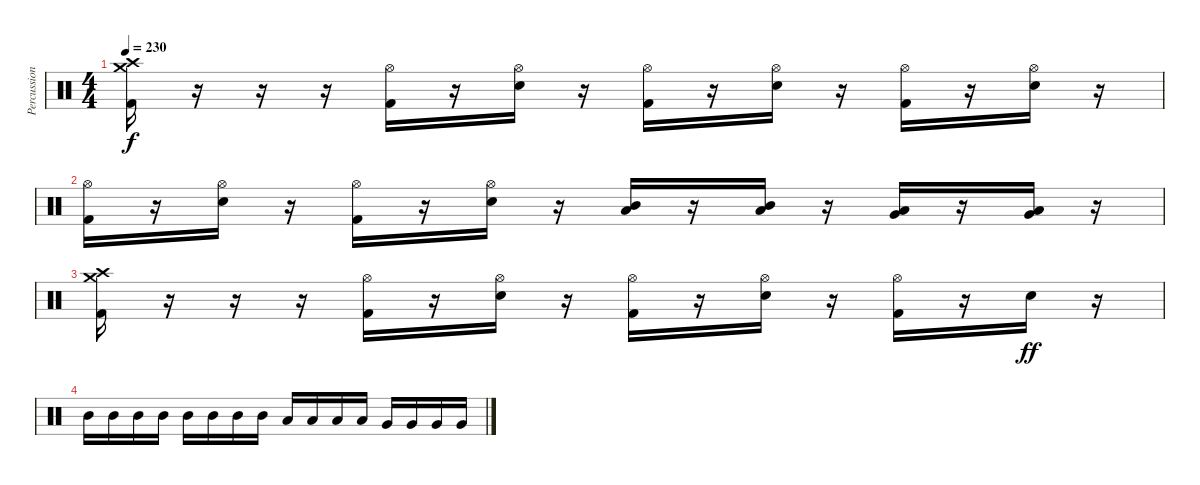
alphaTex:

\track ("Percussion" "Percussion") {instrument percussion}
\staff {score}
\articulation defaults
\ts (4 4)
\tempo 230
\clef neutral
\ks c
("Crash medium (hit)" "Crash high (hit)" "Kick (hit) 2").16{dy f} r.16 r.16 r.16 ("Hi-Hat (open)" "Kick (hit) 2").16 r.16 ("Hi-Hat (open)" "Electric Snare (hit)").16 r.16 ("Hi-Hat (open)" "Kick (hit) 2").16 r.16 ("Hi-Hat (open)" "Electric Snare (hit)").16 r.16 ("Hi-Hat (open)" "Kick (hit) 2").16 r.16 ("Hi-Hat (open)" "Electric Snare (hit)").16 r.16 |
("Hi-Hat (open)" "Kick (hit) 2").16 r.16 ("Hi-Hat (open)" "Electric Snare (hit)").16 r.16 ("Hi-Hat (open)" "Kick (hit) 2").16 r.16 ("Hi-Hat (open)" "Electric Snare (hit)").16 r.16 ("Mid Tom (hit)" "Low Tom (hit)").16 r.16 ("Mid Tom (hit)" "Low Tom (hit)").16 r.16 ("Low Tom (hit)" "Very Low Tom (hit)").16 r.16 ("Low Tom (hit)" "Very Low Tom (hit)").16 r.16 |
("Crash medium (hit)" "Crash high (hit)" "Kick (hit) 2").16 r.16 r.16 r.16 ("Hi-Hat (open)" "Kick (hit) 2").16 r.16 ("Hi-Hat (open)" "Electric Snare (hit)").16 r.16 ("Hi-Hat (open)" "Kick (hit) 2").16 r.16 ("Hi-Hat (open)" "Electric Snare (hit)").16 r.16 ("Hi-Hat (open)" "Kick (hit) 2").16 r.16 "Electric Snare (hit)".16{dy ff} r.16 |
"Mid Tom (hit)".16 "Mid Tom (hit)".16 "Mid Tom (hit)".16 "Mid Tom (hit)".16 "Mid Tom (hit)".16 "Mid Tom (hit)".16 "Mid Tom (hit)".16 "Mid Tom (hit)".16 "Low Tom (hit)".16 "Low Tom (hit)".16 "Low Tom (hit)".16 "Low Tom (hit)".16 "Very Low Tom (hit)".16 "Very Low Tom (hit)".16 "Very Low Tom (hit)".16 "Very Low Tom (hit)".16
